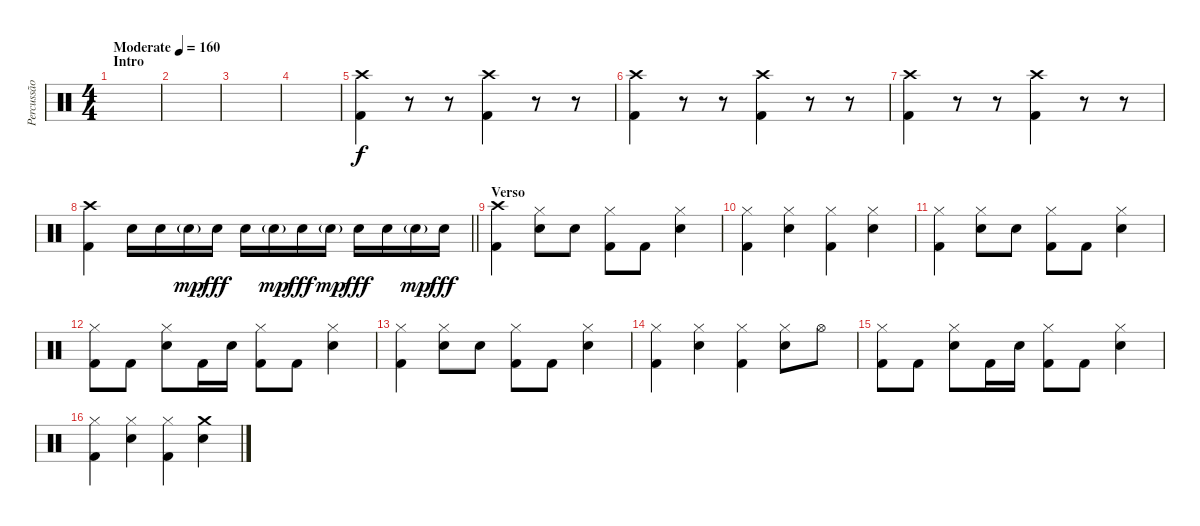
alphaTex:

\track ("Percussão" "Percussão") {instrument percussion}
\staff {score}
\articulation defaults
\ts (4 4)
\section ("" "Intro")
\tempo (160 "Moderate")
\clef neutral
\ks c
|
|
|
|
("Crash high (hit)" "Kick (hit) 2").4{volume 0} r.8 r.8{volume 16} ("Crash high (hit)" "Kick (hit) 2").4{volume 0} r.8 r.8{volume 16} |
("Crash high (hit)" "Kick (hit) 2").4{volume 0} r.8 r.8{volume 16} ("Crash high (hit)" "Kick (hit) 2").4{volume 0} r.8 r.8{volume 16} |
("Crash high (hit)" "Kick (hit) 2").4{volume 0} r.8 r.8{volume 16} ("Crash high (hit)" "Kick (hit) 2").4{volume 0} r.8 r.8{volume 16} |
\barLineRight lightlight
("Crash high (hit)" "Kick (hit) 2").4 "Electric Snare (hit)".16 "Electric Snare (hit)".16 "Electric Snare (hit)"{g}.16{dy mp} "Electric Snare (hit)".16{dy fff} "Electric Snare (hit)".16 "Electric Snare (hit)"{g}.16{dy mp} "Electric Snare (hit)".16{dy fff} "Electric Snare (hit)"{g}.16{dy mp} "Electric Snare (hit)".16{dy fff} "Electric Snare (hit)".16 "Electric Snare (hit)"{g}.16{dy mp} "Electric Snare (hit)".16{dy fff} |
\section ("" "Verso")
("Crash high (hit)" "Kick (hit) 2").4 ("Hi-Hat (closed)" "Electric Snare (hit)").8 "Electric Snare (hit)".8 ("Hi-Hat (closed)" "Kick (hit) 2").8 "Kick (hit) 2".8 ("Hi-Hat (closed)" "Electric Snare (hit)").4 |
("Hi-Hat (closed)" "Kick (hit) 2").4 ("Hi-Hat (closed)" "Electric Snare (hit)").4 ("Hi-Hat (closed)" "Kick (hit) 2").4 ("Hi-Hat (closed)" "Electric Snare (hit)").4 |
("Hi-Hat (closed)" "Kick (hit) 2").4 ("Hi-Hat (closed)" "Electric Snare (hit)").8 "Electric Snare (hit)".8 ("Hi-Hat (closed)" "Kick (hit) 2").8 "Kick (hit) 2".8 ("Hi-Hat (closed)" "Electric Snare (hit)").4 |
("Hi-Hat (closed)" "Kick (hit) 2").8 "Kick (hit) 2".8 ("Hi-Hat (closed)" "Electric Snare (hit)").8 "Kick (hit) 2".16 "Electric Snare (hit)".16 ("Hi-Hat (closed)" "Kick (hit) 2").8 "Kick (hit) 2".8 ("Hi-Hat (closed)" "Electric Snare (hit)").4 |
("Hi-Hat (closed)" "Kick (hit) 2").4 ("Hi-Hat (closed)" "Electric Snare (hit)").8 "Electric Snare (hit)".8 ("Hi-Hat (closed)" "Kick (hit) 2").8 "Kick (hit) 2".8 ("Hi-Hat (closed)" "Electric Snare (hit)").4 |
("Hi-Hat (closed)" "Kick (hit) 2").4 ("Hi-Hat (closed)" "Electric Snare (hit)").4 ("Hi-Hat (closed)" "Kick (hit) 2").4 ("Hi-Hat (closed)" "Electric Snare (hit)").8 "Hi-Hat (open)".8 |
("Hi-Hat (closed)" "Kick (hit) 2").8 "Kick (hit) 2".8 ("Hi-Hat (closed)" "Electric Snare (hit)").8 "Kick (hit) 2".16 "Electric Snare (hit)".16 ("Hi-Hat (closed)" "Kick (hit) 2").8 "Kick (hit) 2".8 ("Hi-Hat (closed)" "Electric Snare (hit)").4 |
("Hi-Hat (closed)" "Kick (hit) 2").4 ("Hi-Hat (closed)" "Electric Snare (hit)").4 ("Hi-Hat (closed)" "Kick (hit) 2").4 ("Crash medium (hit)" "Electric Snare (hit)").4
